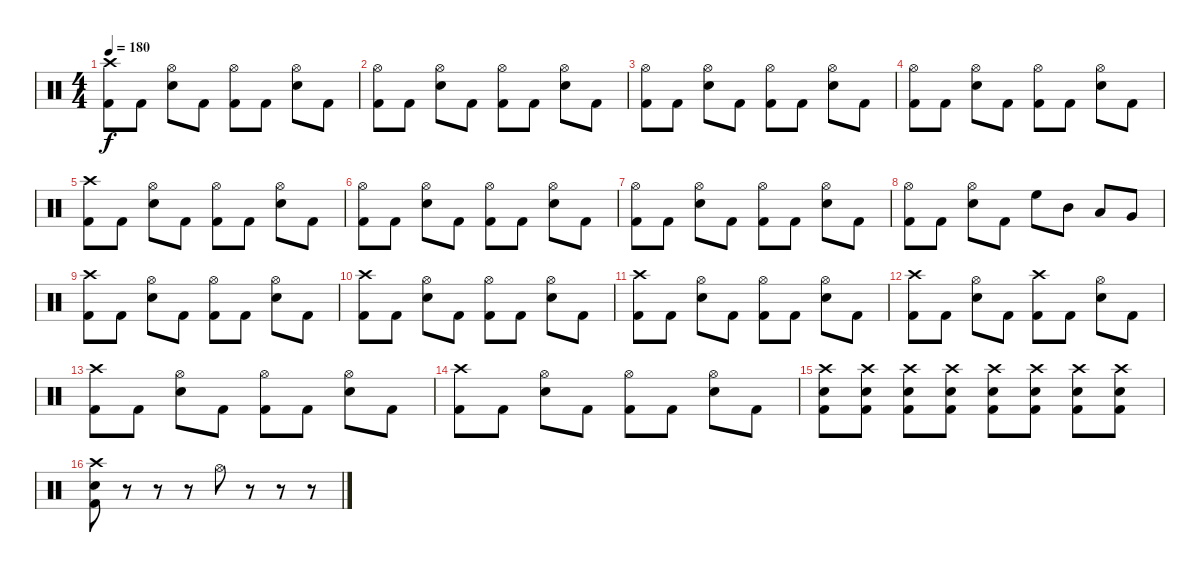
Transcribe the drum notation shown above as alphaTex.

\track "" {instrument percussion}
\staff {score}
\articulation defaults
\ts (4 4)
\tempo 180
\clef neutral
\ks c
("Crash high (hit)" "Kick (hit) 2").8{dy f} "Kick (hit) 2".8 ("Hi-Hat (open)" "Electric Snare (hit)").8 "Kick (hit) 2".8 ("Hi-Hat (open)" "Kick (hit) 2").8 "Kick (hit) 2".8 ("Hi-Hat (open)" "Electric Snare (hit)").8 "Kick (hit) 2".8 |
("Hi-Hat (open)" "Kick (hit) 2").8 "Kick (hit) 2".8 ("Hi-Hat (open)" "Electric Snare (hit)").8 "Kick (hit) 2".8 ("Hi-Hat (open)" "Kick (hit) 2").8 "Kick (hit) 2".8 ("Hi-Hat (open)" "Electric Snare (hit)").8 "Kick (hit) 2".8 |
("Hi-Hat (open)" "Kick (hit) 2").8 "Kick (hit) 2".8 ("Hi-Hat (open)" "Electric Snare (hit)").8 "Kick (hit) 2".8 ("Hi-Hat (open)" "Kick (hit) 2").8 "Kick (hit) 2".8 ("Hi-Hat (open)" "Electric Snare (hit)").8 "Kick (hit) 2".8 |
("Hi-Hat (open)" "Kick (hit) 2").8 "Kick (hit) 2".8 ("Hi-Hat (open)" "Electric Snare (hit)").8 "Kick (hit) 2".8 ("Hi-Hat (open)" "Kick (hit) 2").8 "Kick (hit) 2".8 ("Hi-Hat (open)" "Electric Snare (hit)").8 "Kick (hit) 2".8 |
("Crash high (hit)" "Kick (hit) 2").8 "Kick (hit) 2".8 ("Hi-Hat (open)" "Electric Snare (hit)").8 "Kick (hit) 2".8 ("Hi-Hat (open)" "Kick (hit) 2").8 "Kick (hit) 2".8 ("Hi-Hat (open)" "Electric Snare (hit)").8 "Kick (hit) 2".8 |
("Hi-Hat (open)" "Kick (hit) 2").8 "Kick (hit) 2".8 ("Hi-Hat (open)" "Electric Snare (hit)").8 "Kick (hit) 2".8 ("Hi-Hat (open)" "Kick (hit) 2").8 "Kick (hit) 2".8 ("Hi-Hat (open)" "Electric Snare (hit)").8 "Kick (hit) 2".8 |
("Hi-Hat (open)" "Kick (hit) 2").8 "Kick (hit) 2".8 ("Hi-Hat (open)" "Electric Snare (hit)").8 "Kick (hit) 2".8 ("Hi-Hat (open)" "Kick (hit) 2").8 "Kick (hit) 2".8 ("Hi-Hat (open)" "Electric Snare (hit)").8 "Kick (hit) 2".8 |
("Hi-Hat (open)" "Kick (hit) 2").8 "Kick (hit) 2".8 ("Hi-Hat (open)" "Electric Snare (hit)").8 "Kick (hit) 2".8 "High Floor Tom (hit)".8 "Mid Tom (hit)".8 "Low Tom (hit)".8 "Very Low Tom (hit)".8 |
("Crash high (hit)" "Kick (hit) 2").8 "Kick (hit) 2".8 ("Hi-Hat (open)" "Electric Snare (hit)").8 "Kick (hit) 2".8 ("Hi-Hat (open)" "Kick (hit) 2").8 "Kick (hit) 2".8 ("Hi-Hat (open)" "Electric Snare (hit)").8 "Kick (hit) 2".8 |
("Crash high (hit)" "Kick (hit) 2").8 "Kick (hit) 2".8 ("Hi-Hat (open)" "Electric Snare (hit)").8 "Kick (hit) 2".8 ("Hi-Hat (open)" "Kick (hit) 2").8 "Kick (hit) 2".8 ("Hi-Hat (open)" "Electric Snare (hit)").8 "Kick (hit) 2".8 |
("Crash high (hit)" "Kick (hit) 2").8 "Kick (hit) 2".8 ("Hi-Hat (open)" "Electric Snare (hit)").8 "Kick (hit) 2".8 ("Hi-Hat (open)" "Kick (hit) 2").8 "Kick (hit) 2".8 ("Hi-Hat (open)" "Electric Snare (hit)").8 "Kick (hit) 2".8 |
("Crash high (hit)" "Kick (hit) 2").8 "Kick (hit) 2".8 ("Hi-Hat (open)" "Electric Snare (hit)").8 "Kick (hit) 2".8 ("Crash high (hit)" "Kick (hit) 2").8 "Kick (hit) 2".8 ("Hi-Hat (open)" "Electric Snare (hit)").8 "Kick (hit) 2".8 |
("Crash high (hit)" "Kick (hit) 2").8 "Kick (hit) 2".8 ("Hi-Hat (open)" "Electric Snare (hit)").8 "Kick (hit) 2".8 ("Hi-Hat (open)" "Kick (hit) 2").8 "Kick (hit) 2".8 ("Hi-Hat (open)" "Electric Snare (hit)").8 "Kick (hit) 2".8 |
("Crash high (hit)" "Kick (hit) 2").8 "Kick (hit) 2".8 ("Hi-Hat (open)" "Electric Snare (hit)").8 "Kick (hit) 2".8 ("Hi-Hat (open)" "Kick (hit) 2").8 "Kick (hit) 2".8 ("Hi-Hat (open)" "Electric Snare (hit)").8 "Kick (hit) 2".8 |
("Crash high (hit)" "Kick (hit) 2" "Electric Snare (hit)").8 ("Crash high (hit)" "Kick (hit) 2" "Electric Snare (hit)").8 ("Crash high (hit)" "Kick (hit) 2" "Electric Snare (hit)").8 ("Crash high (hit)" "Kick (hit) 2" "Electric Snare (hit)").8 ("Crash high (hit)" "Kick (hit) 2" "Electric Snare (hit)").8 ("Crash high (hit)" "Kick (hit) 2" "Electric Snare (hit)").8 ("Crash high (hit)" "Kick (hit) 2" "Electric Snare (hit)").8 ("Crash high (hit)" "Kick (hit) 2" "Electric Snare (hit)").8 |
("Crash high (hit)" "Kick (hit) 2" "Electric Snare (hit)").8 r.8 r.8 r.8 "Hi-Hat (open)".8 r.8 r.8 r.8
